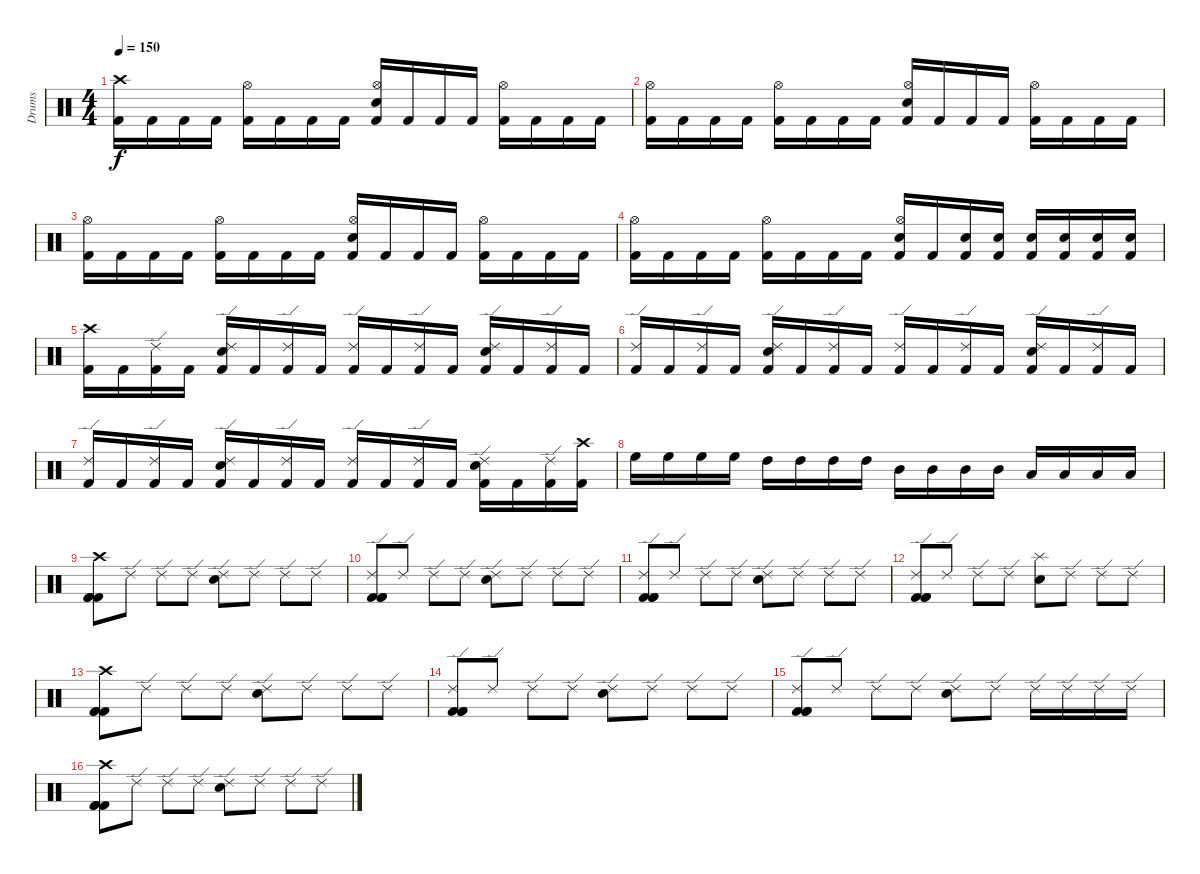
\track ("Drums" "Drums") {instrument percussion}
\staff {score}
\articulation defaults
\ts (4 4)
\tempo 150
\clef neutral
\ks c
("Crash high (hit)" "Kick (hit) 2").16{dy f} "Kick (hit) 2".16 "Kick (hit) 2".16 "Kick (hit) 2".16 ("Hi-Hat (open)" "Kick (hit) 2").16 "Kick (hit) 2".16 "Kick (hit) 2".16 "Kick (hit) 2".16 ("Snare (hit) 2" "Hi-Hat (open)" "Kick (hit) 2").16 "Kick (hit) 2".16 "Kick (hit) 2".16 "Kick (hit) 2".16 ("Hi-Hat (open)" "Kick (hit) 2").16 "Kick (hit) 2".16 "Kick (hit) 2".16 "Kick (hit) 2".16 |
("Hi-Hat (open)" "Kick (hit) 2").16 "Kick (hit) 2".16 "Kick (hit) 2".16 "Kick (hit) 2".16 ("Hi-Hat (open)" "Kick (hit) 2").16 "Kick (hit) 2".16 "Kick (hit) 2".16 "Kick (hit) 2".16 ("Snare (hit) 2" "Hi-Hat (open)" "Kick (hit) 2").16 "Kick (hit) 2".16 "Kick (hit) 2".16 "Kick (hit) 2".16 ("Hi-Hat (open)" "Kick (hit) 2").16 "Kick (hit) 2".16 "Kick (hit) 2".16 "Kick (hit) 2".16 |
("Hi-Hat (open)" "Kick (hit) 2").16 "Kick (hit) 2".16 "Kick (hit) 2".16 "Kick (hit) 2".16 ("Hi-Hat (open)" "Kick (hit) 2").16 "Kick (hit) 2".16 "Kick (hit) 2".16 "Kick (hit) 2".16 ("Snare (hit) 2" "Hi-Hat (open)" "Kick (hit) 2").16 "Kick (hit) 2".16 "Kick (hit) 2".16 "Kick (hit) 2".16 ("Hi-Hat (open)" "Kick (hit) 2").16 "Kick (hit) 2".16 "Kick (hit) 2".16 "Kick (hit) 2".16 |
("Hi-Hat (open)" "Kick (hit) 2").16 "Kick (hit) 2".16 "Kick (hit) 2".16 "Kick (hit) 2".16 ("Hi-Hat (open)" "Kick (hit) 2").16 "Kick (hit) 2".16 "Kick (hit) 2".16 "Kick (hit) 2".16 ("Snare (hit) 2" "Hi-Hat (open)" "Kick (hit) 2").16 "Kick (hit) 2".16 ("Snare (hit) 2" "Kick (hit) 2").16 ("Snare (hit) 2" "Kick (hit) 2").16 ("Snare (hit) 2" "Kick (hit) 2").16 ("Snare (hit) 2" "Kick (hit) 2").16 ("Snare (hit) 2" "Kick (hit) 2").16 ("Snare (hit) 2" "Kick (hit) 2").16 |
("Crash high (hit)" "Kick (hit) 2").16 "Kick (hit) 2".16 ("Ride (edge) 2" "Kick (hit) 2").16 "Kick (hit) 2".16 ("Snare (hit) 2" "Ride (edge) 2" "Kick (hit) 2").16 "Kick (hit) 2".16 ("Ride (edge) 2" "Kick (hit) 2").16 "Kick (hit) 2".16 ("Ride (edge) 2" "Kick (hit) 2").16 "Kick (hit) 2".16 ("Ride (edge) 2" "Kick (hit) 2").16 "Kick (hit) 2".16 ("Snare (hit) 2" "Ride (edge) 2" "Kick (hit) 2").16 "Kick (hit) 2".16 ("Ride (edge) 2" "Kick (hit) 2").16 "Kick (hit) 2".16 |
("Ride (edge) 2" "Kick (hit) 2").16 "Kick (hit) 2".16 ("Ride (edge) 2" "Kick (hit) 2").16 "Kick (hit) 2".16 ("Snare (hit) 2" "Ride (edge) 2" "Kick (hit) 2").16 "Kick (hit) 2".16 ("Ride (edge) 2" "Kick (hit) 2").16 "Kick (hit) 2".16 ("Ride (edge) 2" "Kick (hit) 2").16 "Kick (hit) 2".16 ("Ride (edge) 2" "Kick (hit) 2").16 "Kick (hit) 2".16 ("Snare (hit) 2" "Ride (edge) 2" "Kick (hit) 2").16 "Kick (hit) 2".16 ("Ride (edge) 2" "Kick (hit) 2").16 "Kick (hit) 2".16 |
("Ride (edge) 2" "Kick (hit) 2").16 "Kick (hit) 2".16 ("Ride (edge) 2" "Kick (hit) 2").16 "Kick (hit) 2".16 ("Snare (hit) 2" "Ride (edge) 2" "Kick (hit) 2").16 "Kick (hit) 2".16 ("Ride (edge) 2" "Kick (hit) 2").16 "Kick (hit) 2".16 ("Ride (edge) 2" "Kick (hit) 2").16 "Kick (hit) 2".16 ("Ride (edge) 2" "Kick (hit) 2").16 "Kick (hit) 2".16 ("Snare (hit) 2" "Ride (edge) 2" "Kick (hit) 2").16 "Kick (hit) 2".16 ("Ride (edge) 2" "Kick (hit) 2").16 ("Crash high (hit)" "Kick (hit) 2").16 |
"High Floor Tom (hit)".16 "High Floor Tom (hit)".16 "High Floor Tom (hit)".16 "High Floor Tom (hit)".16 "High Tom (hit)".16 "High Tom (hit)".16 "High Tom (hit)".16 "High Tom (hit)".16 "Mid Tom (hit)".16 "Mid Tom (hit)".16 "Mid Tom (hit)".16 "Mid Tom (hit)".16 "Low Tom (hit)".16 "Low Tom (hit)".16 "Low Tom (hit)".16 "Low Tom (hit)".16 |
("Crash high (hit)" "Kick (hit) 2" "Kick (hit) 2" "Kick (hit) 2").8 "Ride (edge) 2".8 "Ride (edge) 2".8 "Ride (edge) 2".8 ("Ride (edge) 2" "Snare (hit) 2").8 "Ride (edge) 2".8 "Ride (edge) 2".8 "Ride (edge) 2".8 |
("Ride (edge) 2" "Kick (hit) 2" "Kick (hit) 2" "Kick (hit) 2").8 "Ride (edge) 2".8 "Ride (edge) 2".8 "Ride (edge) 2".8 ("Ride (edge) 2" "Snare (hit) 2").8 "Ride (edge) 2".8 "Ride (edge) 2".8 "Ride (edge) 2".8 |
("Ride (edge) 2" "Kick (hit) 2" "Kick (hit) 2" "Kick (hit) 2").8 "Ride (edge) 2".8 "Ride (edge) 2".8 "Ride (edge) 2".8 ("Ride (edge) 2" "Snare (hit) 2").8 "Ride (edge) 2".8 "Ride (edge) 2".8 "Ride (edge) 2".8 |
("Ride (edge) 2" "Kick (hit) 2" "Kick (hit) 2" "Kick (hit) 2").8 "Ride (edge) 2".8 "Ride (edge) 2".8 "Ride (edge) 2".8 ("Snare (hit) 2" "Splash (hit)").8 "Ride (edge) 2".8 "Ride (edge) 2".8 "Ride (edge) 2".8 |
("Crash high (hit)" "Kick (hit) 2" "Kick (hit) 2" "Kick (hit) 2").8 "Ride (edge) 2".8 "Ride (edge) 2".8 "Ride (edge) 2".8 ("Ride (edge) 2" "Snare (hit) 2").8 "Ride (edge) 2".8 "Ride (edge) 2".8 "Ride (edge) 2".8 |
("Ride (edge) 2" "Kick (hit) 2" "Kick (hit) 2" "Kick (hit) 2").8 "Ride (edge) 2".8 "Ride (edge) 2".8 "Ride (edge) 2".8 ("Ride (edge) 2" "Snare (hit) 2").8 "Ride (edge) 2".8 "Ride (edge) 2".8 "Ride (edge) 2".8 |
("Ride (edge) 2" "Kick (hit) 2" "Kick (hit) 2" "Kick (hit) 2").8 "Ride (edge) 2".8 "Ride (edge) 2".8 "Ride (edge) 2".8 ("Ride (edge) 2" "Snare (hit) 2").8 "Ride (edge) 2".8 "Ride (edge) 2".16 "Ride (edge) 2".16 "Ride (edge) 2".16 "Ride (edge) 2".16 |
("Crash high (hit)" "Kick (hit) 2" "Kick (hit) 2" "Kick (hit) 2").8 "Ride (edge) 2".8 "Ride (edge) 2".8 "Ride (edge) 2".8 ("Ride (edge) 2" "Snare (hit) 2").8 "Ride (edge) 2".8 "Ride (edge) 2".8 "Ride (edge) 2".8
